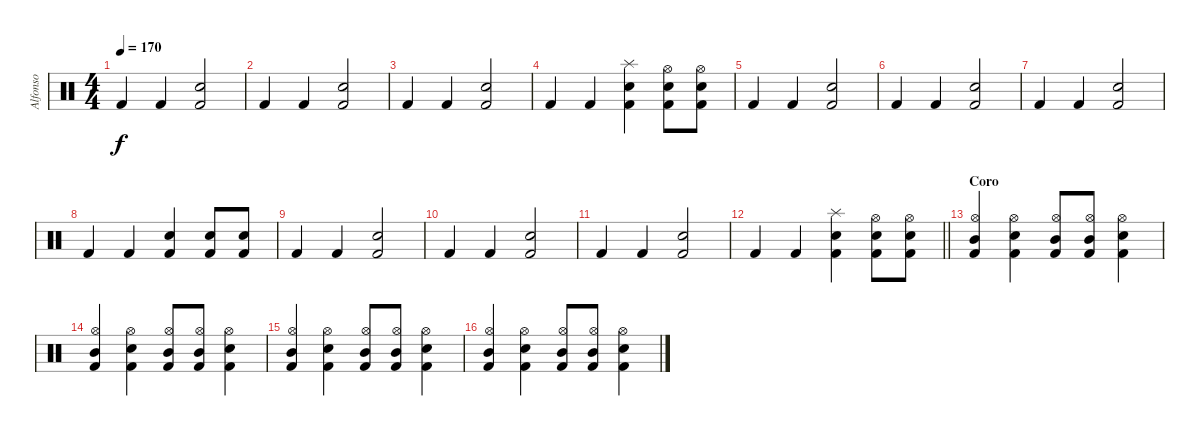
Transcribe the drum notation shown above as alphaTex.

\track ("Alfonso" "Alfonso") {instrument percussion}
\staff {score}
\articulation defaults
\ts (4 4)
\tempo 170
\clef neutral
\ks c "Kick (hit) 2".4{dy f} "Kick (hit) 2".4
("Kick (hit) 2" "Snare (hit) 2").2 |
"Kick (hit) 2".4 "Kick (hit) 2".4 ("Kick (hit) 2" "Snare (hit) 2").2 |
"Kick (hit) 2".4 "Kick (hit) 2".4 ("Kick (hit) 2" "Snare (hit) 2").2 |
"Kick (hit) 2".4 "Kick (hit) 2".4 ("Kick (hit) 2" "Snare (hit) 2" "Splash (hit)").4 ("Kick (hit) 2" "Snare (hit) 2" "Hi-Hat (open)").8 ("Kick (hit) 2" "Snare (hit) 2" "Hi-Hat (open)").8 |
"Kick (hit) 2".4 "Kick (hit) 2".4 ("Kick (hit) 2" "Snare (hit) 2").2 |
"Kick (hit) 2".4 "Kick (hit) 2".4 ("Kick (hit) 2" "Snare (hit) 2").2 |
"Kick (hit) 2".4 "Kick (hit) 2".4 ("Kick (hit) 2" "Snare (hit) 2").2 |
"Kick (hit) 2".4 "Kick (hit) 2".4 ("Kick (hit) 2" "Snare (hit) 2").4 ("Kick (hit) 2" "Snare (hit) 2").8 ("Kick (hit) 2" "Snare (hit) 2").8 |
"Kick (hit) 2".4 "Kick (hit) 2".4 ("Kick (hit) 2" "Snare (hit) 2").2 |
"Kick (hit) 2".4 "Kick (hit) 2".4 ("Kick (hit) 2" "Snare (hit) 2").2 |
"Kick (hit) 2".4 "Kick (hit) 2".4 ("Kick (hit) 2" "Snare (hit) 2").2 |
\barLineRight lightlight "Kick (hit) 2".4 "Kick (hit) 2".4
("Kick (hit) 2" "Snare (hit) 2" "Splash (hit)").4 ("Kick (hit) 2" "Snare (hit) 2" "Hi-Hat (open)").8 ("Kick (hit) 2" "Snare (hit) 2" "Hi-Hat (open)").8 |
\section ("" "Coro")
("Kick (hit) 2" "Mid Tom (hit)" "Hi-Hat (open)").4 ("Kick (hit) 2" "Snare (hit) 2" "Hi-Hat (open)").4 ("Kick (hit) 2" "Mid Tom (hit)" "Hi-Hat (open)").8 ("Kick (hit) 2" "Mid Tom (hit)" "Hi-Hat (open)").8 ("Kick (hit) 2" "Snare (hit) 2" "Hi-Hat (open)").4 |
("Kick (hit) 2" "Mid Tom (hit)" "Hi-Hat (open)").4 ("Kick (hit) 2" "Snare (hit) 2" "Hi-Hat (open)").4 ("Kick (hit) 2" "Mid Tom (hit)" "Hi-Hat (open)").8 ("Kick (hit) 2" "Mid Tom (hit)" "Hi-Hat (open)").8 ("Kick (hit) 2" "Snare (hit) 2" "Hi-Hat (open)").4 |
("Kick (hit) 2" "Mid Tom (hit)" "Hi-Hat (open)").4 ("Kick (hit) 2" "Snare (hit) 2" "Hi-Hat (open)").4 ("Kick (hit) 2" "Mid Tom (hit)" "Hi-Hat (open)").8 ("Kick (hit) 2" "Mid Tom (hit)" "Hi-Hat (open)").8 ("Kick (hit) 2" "Snare (hit) 2" "Hi-Hat (open)").4 |
("Kick (hit) 2" "Mid Tom (hit)" "Hi-Hat (open)").4 ("Kick (hit) 2" "Snare (hit) 2" "Hi-Hat (open)").4 ("Kick (hit) 2" "Mid Tom (hit)" "Hi-Hat (open)").8 ("Kick (hit) 2" "Mid Tom (hit)" "Hi-Hat (open)").8 ("Kick (hit) 2" "Snare (hit) 2" "Hi-Hat (open)").4
